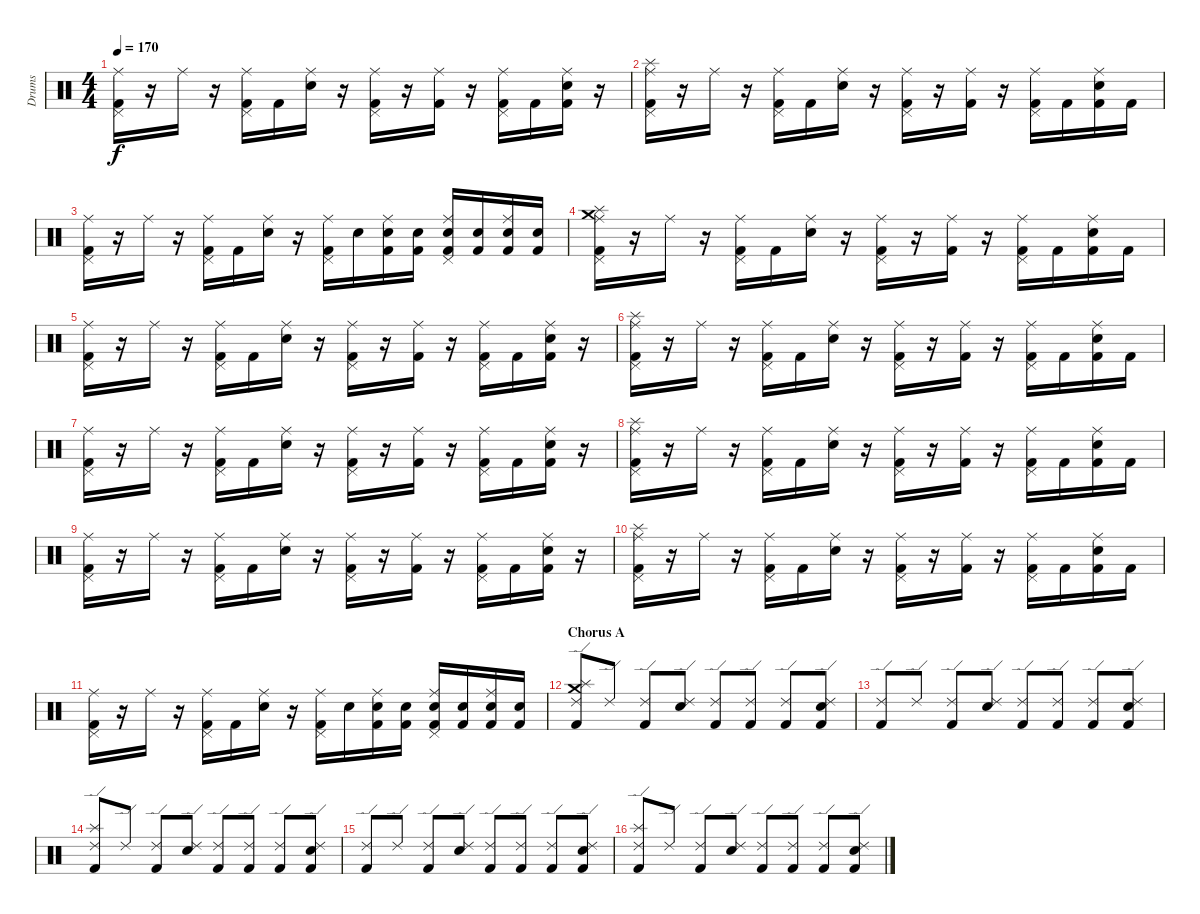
\track ("Drums" "Drums") {instrument percussion}
\staff {score}
\articulation defaults
\ts (4 4)
\tempo 170
\clef neutral
\ks c
("Kick (hit) 2" "Pedal Hi-Hat (hit)" "Ride (middle)").16{dy f} r.16 "Ride (middle)".16 r.16 ("Kick (hit) 2" "Pedal Hi-Hat (hit)" "Ride (middle)").16 "Kick (hit) 2".16 ("Snare (hit) 2" "Ride (middle)").16 r.16 ("Kick (hit) 2" "Pedal Hi-Hat (hit)" "Ride (middle)").16 r.16 ("Kick (hit) 2" "Ride (middle)").16 r.16 ("Kick (hit) 2" "Pedal Hi-Hat (hit)" "Ride (middle)").16 "Kick (hit) 2".16 ("Kick (hit) 2" "Snare (hit) 2" "Ride (middle)").16 r.16 |
("Kick (hit) 2" "Pedal Hi-Hat (hit)" "Splash (hit)" "Ride (middle)").16 r.16 "Ride (middle)".16 r.16 ("Kick (hit) 2" "Pedal Hi-Hat (hit)" "Ride (middle)").16 "Kick (hit) 2".16 ("Snare (hit) 2" "Ride (middle)").16 r.16 ("Kick (hit) 2" "Pedal Hi-Hat (hit)" "Ride (middle)").16 r.16 ("Kick (hit) 2" "Ride (middle)").16 r.16 ("Kick (hit) 2" "Pedal Hi-Hat (hit)" "Ride (middle)").16 "Kick (hit) 2".16 ("Kick (hit) 2" "Snare (hit) 2" "Ride (middle)").16 "Kick (hit) 2".16 |
("Kick (hit) 2" "Pedal Hi-Hat (hit)" "Ride (middle)").16 r.16 "Ride (middle)".16 r.16 ("Kick (hit) 2" "Pedal Hi-Hat (hit)" "Ride (middle)").16 "Kick (hit) 2".16 ("Snare (hit) 2" "Ride (middle)").16 r.16 ("Kick (hit) 2" "Pedal Hi-Hat (hit)" "Ride (middle)").16 "Snare (hit)".16 ("Kick (hit) 2" "Snare (hit) 2" "Ride (middle)").16 ("Kick (hit) 2" "Snare (hit) 2").16 ("Kick (hit) 2" "Snare (hit) 2" "Pedal Hi-Hat (hit)" "Ride (middle)").16 ("Kick (hit) 2" "Snare (hit) 2").16 ("Kick (hit) 2" "Snare (hit) 2" "Ride (middle)").16 ("Kick (hit) 2" "Snare (hit) 2").16 |
("Kick (hit) 2" "Crash medium (hit)" "Pedal Hi-Hat (hit)" "Splash (hit)" "Ride (middle)").16 r.16 "Ride (middle)".16 r.16 ("Kick (hit) 2" "Pedal Hi-Hat (hit)" "Ride (middle)").16 "Kick (hit) 2".16 ("Snare (hit) 2" "Ride (middle)").16 r.16 ("Kick (hit) 2" "Pedal Hi-Hat (hit)" "Ride (middle)").16 r.16 ("Kick (hit) 2" "Ride (middle)").16 r.16 ("Kick (hit) 2" "Pedal Hi-Hat (hit)" "Ride (middle)").16 "Kick (hit) 2".16 ("Kick (hit) 2" "Snare (hit) 2" "Ride (middle)").16 "Kick (hit) 2".16 |
("Kick (hit) 2" "Pedal Hi-Hat (hit)" "Ride (middle)").16 r.16 "Ride (middle)".16 r.16 ("Kick (hit) 2" "Pedal Hi-Hat (hit)" "Ride (middle)").16 "Kick (hit) 2".16 ("Snare (hit) 2" "Ride (middle)").16 r.16 ("Kick (hit) 2" "Pedal Hi-Hat (hit)" "Ride (middle)").16 r.16 ("Kick (hit) 2" "Ride (middle)").16 r.16 ("Kick (hit) 2" "Pedal Hi-Hat (hit)" "Ride (middle)").16 "Kick (hit) 2".16 ("Kick (hit) 2" "Snare (hit) 2" "Ride (middle)").16 r.16 |
("Kick (hit) 2" "Pedal Hi-Hat (hit)" "Splash (hit)" "Ride (middle)").16 r.16 "Ride (middle)".16 r.16 ("Kick (hit) 2" "Pedal Hi-Hat (hit)" "Ride (middle)").16 "Kick (hit) 2".16 ("Snare (hit) 2" "Ride (middle)").16 r.16 ("Kick (hit) 2" "Pedal Hi-Hat (hit)" "Ride (middle)").16 r.16 ("Kick (hit) 2" "Ride (middle)").16 r.16 ("Kick (hit) 2" "Pedal Hi-Hat (hit)" "Ride (middle)").16 "Kick (hit) 2".16 ("Kick (hit) 2" "Snare (hit) 2" "Ride (middle)").16 "Kick (hit) 2".16 |
("Kick (hit) 2" "Pedal Hi-Hat (hit)" "Ride (middle)").16 r.16 "Ride (middle)".16 r.16 ("Kick (hit) 2" "Pedal Hi-Hat (hit)" "Ride (middle)").16 "Kick (hit) 2".16 ("Snare (hit) 2" "Ride (middle)").16 r.16 ("Kick (hit) 2" "Pedal Hi-Hat (hit)" "Ride (middle)").16 r.16 ("Kick (hit) 2" "Ride (middle)").16 r.16 ("Kick (hit) 2" "Pedal Hi-Hat (hit)" "Ride (middle)").16 "Kick (hit) 2".16 ("Kick (hit) 2" "Snare (hit) 2" "Ride (middle)").16 r.16 |
("Kick (hit) 2" "Pedal Hi-Hat (hit)" "Splash (hit)" "Ride (middle)").16 r.16 "Ride (middle)".16 r.16 ("Kick (hit) 2" "Pedal Hi-Hat (hit)" "Ride (middle)").16 "Kick (hit) 2".16 ("Snare (hit) 2" "Ride (middle)").16 r.16 ("Kick (hit) 2" "Pedal Hi-Hat (hit)" "Ride (middle)").16 r.16 ("Kick (hit) 2" "Ride (middle)").16 r.16 ("Kick (hit) 2" "Pedal Hi-Hat (hit)" "Ride (middle)").16 "Kick (hit) 2".16 ("Kick (hit) 2" "Snare (hit) 2" "Ride (middle)").16 "Kick (hit) 2".16 |
("Kick (hit) 2" "Pedal Hi-Hat (hit)" "Ride (middle)").16 r.16 "Ride (middle)".16 r.16 ("Kick (hit) 2" "Pedal Hi-Hat (hit)" "Ride (middle)").16 "Kick (hit) 2".16 ("Snare (hit) 2" "Ride (middle)").16 r.16 ("Kick (hit) 2" "Pedal Hi-Hat (hit)" "Ride (middle)").16 r.16 ("Kick (hit) 2" "Ride (middle)").16 r.16 ("Kick (hit) 2" "Pedal Hi-Hat (hit)" "Ride (middle)").16 "Kick (hit) 2".16 ("Kick (hit) 2" "Snare (hit) 2" "Ride (middle)").16 r.16 |
("Kick (hit) 2" "Pedal Hi-Hat (hit)" "Splash (hit)" "Ride (middle)").16 r.16 "Ride (middle)".16 r.16 ("Kick (hit) 2" "Pedal Hi-Hat (hit)" "Ride (middle)").16 "Kick (hit) 2".16 ("Snare (hit) 2" "Ride (middle)").16 r.16 ("Kick (hit) 2" "Pedal Hi-Hat (hit)" "Ride (middle)").16 r.16 ("Kick (hit) 2" "Ride (middle)").16 r.16 ("Kick (hit) 2" "Pedal Hi-Hat (hit)" "Ride (middle)").16 "Kick (hit) 2".16 ("Kick (hit) 2" "Snare (hit) 2" "Ride (middle)").16 "Kick (hit) 2".16 |
("Kick (hit) 2" "Pedal Hi-Hat (hit)" "Ride (middle)").16 r.16 "Ride (middle)".16 r.16 ("Kick (hit) 2" "Pedal Hi-Hat (hit)" "Ride (middle)").16 "Kick (hit) 2".16 ("Snare (hit) 2" "Ride (middle)").16 r.16 ("Kick (hit) 2" "Pedal Hi-Hat (hit)" "Ride (middle)").16 "Snare (hit)".16 ("Kick (hit) 2" "Snare (hit) 2" "Ride (middle)").16 ("Kick (hit) 2" "Snare (hit) 2").16 ("Kick (hit) 2" "Snare (hit) 2" "Pedal Hi-Hat (hit)" "Ride (middle)").16 ("Kick (hit) 2" "Snare (hit) 2").16 ("Kick (hit) 2" "Snare (hit) 2" "Ride (middle)").16 ("Kick (hit) 2" "Snare (hit) 2").16 |
\section ("" "Chorus A")
("Kick (hit) 2" "Crash medium (hit)" "Splash (hit)" "Ride (edge) 2").8 "Ride (edge) 2".8 ("Kick (hit) 2" "Ride (edge) 2").8 ("Snare (hit) 2" "Ride (edge) 2").8 ("Kick (hit) 2" "Ride (edge) 2").8 ("Kick (hit) 2" "Ride (edge) 2").8 ("Kick (hit) 2" "Ride (edge) 2").8 ("Kick (hit) 2" "Snare (hit) 2" "Ride (edge) 2").8 |
("Kick (hit) 2" "Ride (edge) 2").8 "Ride (edge) 2".8 ("Kick (hit) 2" "Ride (edge) 2").8 ("Snare (hit) 2" "Ride (edge) 2").8 ("Kick (hit) 2" "Ride (edge) 2").8 ("Kick (hit) 2" "Ride (edge) 2").8 ("Kick (hit) 2" "Ride (edge) 2").8 ("Kick (hit) 2" "Snare (hit) 2" "Ride (edge) 2").8 |
("Kick (hit) 2" "Splash (hit)" "Ride (edge) 2").8 "Ride (edge) 2".8 ("Kick (hit) 2" "Ride (edge) 2").8 ("Snare (hit) 2" "Ride (edge) 2").8 ("Kick (hit) 2" "Ride (edge) 2").8 ("Kick (hit) 2" "Ride (edge) 2").8 ("Kick (hit) 2" "Ride (edge) 2").8 ("Kick (hit) 2" "Snare (hit) 2" "Ride (edge) 2").8 |
("Kick (hit) 2" "Ride (edge) 2").8 "Ride (edge) 2".8 ("Kick (hit) 2" "Ride (edge) 2").8 ("Snare (hit) 2" "Ride (edge) 2").8 ("Kick (hit) 2" "Ride (edge) 2").8 ("Kick (hit) 2" "Ride (edge) 2").8 ("Kick (hit) 2" "Ride (edge) 2").8 ("Kick (hit) 2" "Snare (hit) 2" "Ride (edge) 2").8 |
("Kick (hit) 2" "Splash (hit)" "Ride (edge) 2").8 "Ride (edge) 2".8 ("Kick (hit) 2" "Ride (edge) 2").8 ("Snare (hit) 2" "Ride (edge) 2").8 ("Kick (hit) 2" "Ride (edge) 2").8 ("Kick (hit) 2" "Ride (edge) 2").8 ("Kick (hit) 2" "Ride (edge) 2").8 ("Kick (hit) 2" "Snare (hit) 2" "Ride (edge) 2").8
